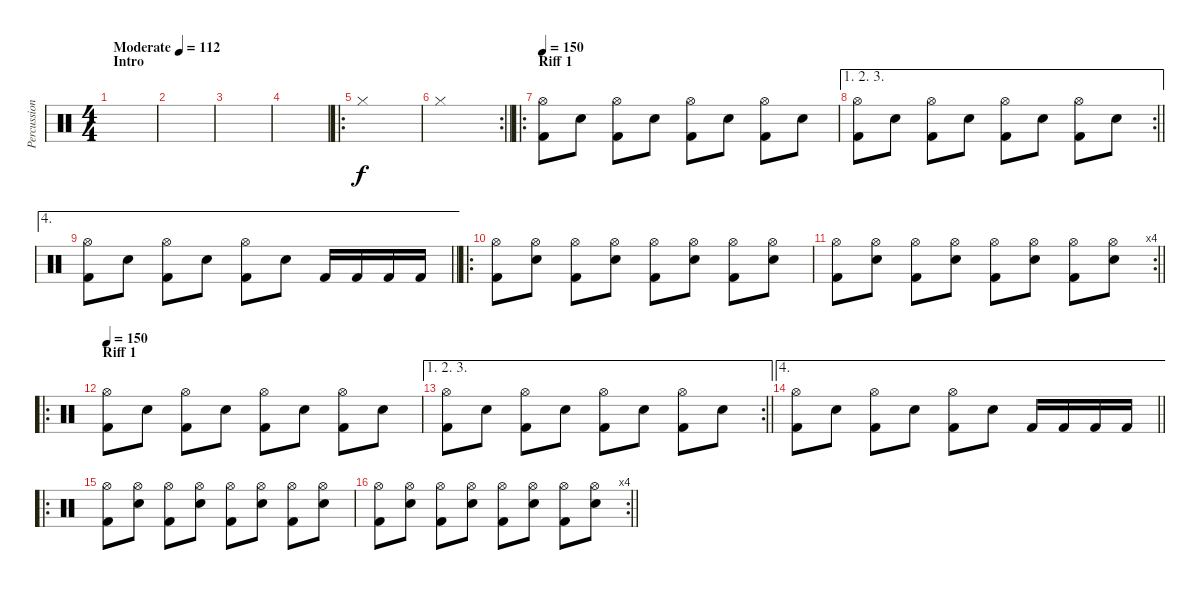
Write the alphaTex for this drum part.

\track ("Percussion" "Percussion") {instrument percussion}
\staff {score}
\articulation defaults
\ts (4 4)
\section ("" "Intro")
\tempo (112 "Moderate")
\clef neutral
\ks c
|
|
|
|
\ro "Hi-Hat (closed)".1
|
\rc 2
\barLineRight lightlight "Hi-Hat (closed)".1
|
\ro
\section ("" "Riff 1")
\tempo 150
("Hi-Hat (open)" "Kick (hit) 2").8 "Snare (hit) 2".8 ("Hi-Hat (open)" "Kick (hit) 2").8 "Snare (hit) 2".8 ("Hi-Hat (open)" "Kick (hit) 2").8 "Snare (hit) 2".8 ("Hi-Hat (open)" "Kick (hit) 2").8 "Snare (hit) 2".8 |
\ae (1 2 3)
\rc 2
\barLineRight lightlight
("Hi-Hat (open)" "Kick (hit) 2").8 "Snare (hit) 2".8 ("Hi-Hat (open)" "Kick (hit) 2").8 "Snare (hit) 2".8 ("Hi-Hat (open)" "Kick (hit) 2").8 "Snare (hit) 2".8 ("Hi-Hat (open)" "Kick (hit) 2").8 "Snare (hit) 2".8 |
\ae 4
\barLineRight lightlight
("Hi-Hat (open)" "Kick (hit) 2").8 "Snare (hit) 2".8 ("Hi-Hat (open)" "Kick (hit) 2").8 "Snare (hit) 2".8 ("Hi-Hat (open)" "Kick (hit) 2").8 "Snare (hit) 2".8 "Kick (hit) 2".16 "Kick (hit) 2".16 "Kick (hit) 2".16 "Kick (hit) 2".16 |
\ro
\section ("" "")
("Hi-Hat (open)" "Kick (hit) 2").8 ("Hi-Hat (open)" "Snare (hit) 2").8 ("Hi-Hat (open)" "Kick (hit) 2").8 ("Hi-Hat (open)" "Snare (hit) 2").8 ("Hi-Hat (open)" "Kick (hit) 2").8 ("Hi-Hat (open)" "Snare (hit) 2").8 ("Hi-Hat (open)" "Kick (hit) 2").8 ("Hi-Hat (open)" "Snare (hit) 2").8 |
\rc 4
\barLineRight lightlight
("Hi-Hat (open)" "Kick (hit) 2").8 ("Hi-Hat (open)" "Snare (hit) 2").8 ("Hi-Hat (open)" "Kick (hit) 2").8 ("Hi-Hat (open)" "Snare (hit) 2").8 ("Hi-Hat (open)" "Kick (hit) 2").8 ("Hi-Hat (open)" "Snare (hit) 2").8 ("Hi-Hat (open)" "Kick (hit) 2").8 ("Hi-Hat (open)" "Snare (hit) 2").8 |
\ro
\section ("" "Riff 1")
\tempo 150
("Hi-Hat (open)" "Kick (hit) 2").8 "Snare (hit) 2".8 ("Hi-Hat (open)" "Kick (hit) 2").8 "Snare (hit) 2".8 ("Hi-Hat (open)" "Kick (hit) 2").8 "Snare (hit) 2".8 ("Hi-Hat (open)" "Kick (hit) 2").8 "Snare (hit) 2".8 |
\ae (1 2 3)
\rc 2
\barLineRight lightlight
("Hi-Hat (open)" "Kick (hit) 2").8 "Snare (hit) 2".8 ("Hi-Hat (open)" "Kick (hit) 2").8 "Snare (hit) 2".8 ("Hi-Hat (open)" "Kick (hit) 2").8 "Snare (hit) 2".8 ("Hi-Hat (open)" "Kick (hit) 2").8 "Snare (hit) 2".8 |
\ae 4
\barLineRight lightlight
("Hi-Hat (open)" "Kick (hit) 2").8 "Snare (hit) 2".8 ("Hi-Hat (open)" "Kick (hit) 2").8 "Snare (hit) 2".8 ("Hi-Hat (open)" "Kick (hit) 2").8 "Snare (hit) 2".8 "Kick (hit) 2".16 "Kick (hit) 2".16 "Kick (hit) 2".16 "Kick (hit) 2".16 |
\ro
\section ("" "")
("Hi-Hat (open)" "Kick (hit) 2").8 ("Hi-Hat (open)" "Snare (hit) 2").8 ("Hi-Hat (open)" "Kick (hit) 2").8 ("Hi-Hat (open)" "Snare (hit) 2").8 ("Hi-Hat (open)" "Kick (hit) 2").8 ("Hi-Hat (open)" "Snare (hit) 2").8 ("Hi-Hat (open)" "Kick (hit) 2").8 ("Hi-Hat (open)" "Snare (hit) 2").8 |
\rc 4
\barLineRight lightlight
("Hi-Hat (open)" "Kick (hit) 2").8 ("Hi-Hat (open)" "Snare (hit) 2").8 ("Hi-Hat (open)" "Kick (hit) 2").8 ("Hi-Hat (open)" "Snare (hit) 2").8 ("Hi-Hat (open)" "Kick (hit) 2").8 ("Hi-Hat (open)" "Snare (hit) 2").8 ("Hi-Hat (open)" "Kick (hit) 2").8 ("Hi-Hat (open)" "Snare (hit) 2").8
